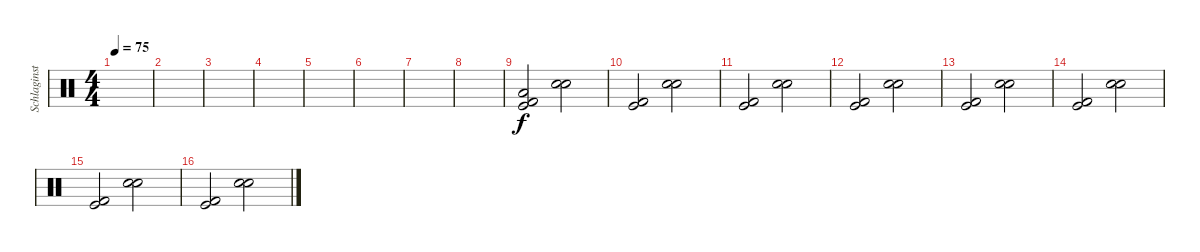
\track ("Schlaginstrumente - Auswahl" "Schlaginst") {instrument percussion}
\staff {score}
\articulation defaults
\ts (4 4)
\tempo 75
\clef neutral
\ks c
|
|
|
|
|
|
|
|
("Low Tom (hit)" "Kick (hit)" "Kick (hit) 2").2 ("Snare (hit) 2" "Electric Snare (hit)").2 |
("Kick (hit)" "Kick (hit) 2").2 ("Snare (hit) 2" "Electric Snare (hit)").2 |
("Kick (hit)" "Kick (hit) 2").2 ("Snare (hit) 2" "Electric Snare (hit)").2 |
("Kick (hit)" "Kick (hit) 2").2 ("Snare (hit) 2" "Electric Snare (hit)").2 |
("Kick (hit)" "Kick (hit) 2").2 ("Snare (hit) 2" "Electric Snare (hit)").2 |
("Kick (hit)" "Kick (hit) 2").2 ("Snare (hit) 2" "Electric Snare (hit)").2 |
("Kick (hit)" "Kick (hit) 2").2 ("Snare (hit) 2" "Electric Snare (hit)").2 |
("Kick (hit)" "Kick (hit) 2").2 ("Snare (hit) 2" "Electric Snare (hit)").2
